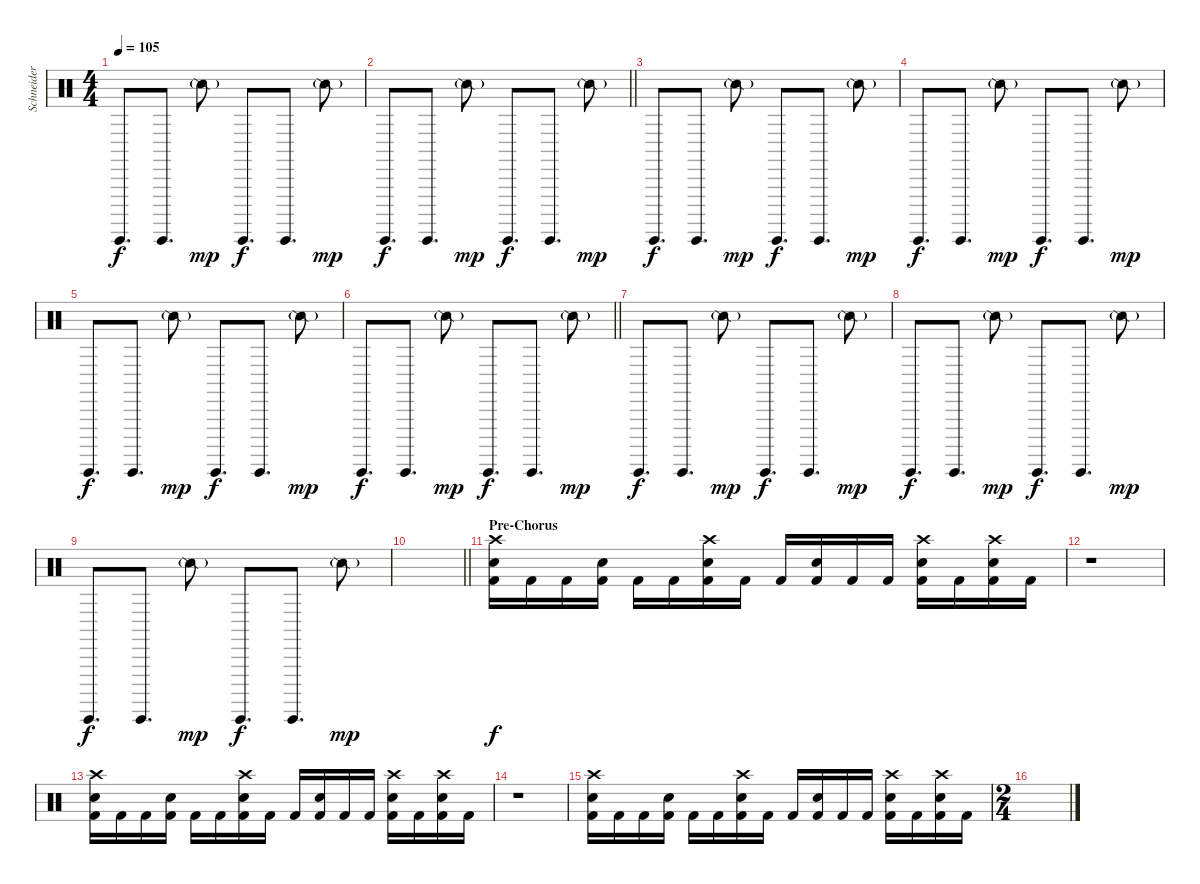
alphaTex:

\track ("Schneider" "Schneider") {instrument percussion}
\staff {score}
\articulation defaults
\ts (4 4)
\tempo 105
\clef neutral
\ks c "Guiro (hit)".8{d dy f} "Guiro (hit)".8{d} "Snare (side stick) 2"{g}.8{dy mp} "Guiro (hit)".8{d dy f} "Guiro (hit)".8{d} "Snare (side stick) 2"{g}.8{dy mp}
|
\barLineRight lightlight "Guiro (hit)".8{d dy f} "Guiro (hit)".8{d} "Snare (side stick) 2"{g}.8{dy mp} "Guiro (hit)".8{d dy f} "Guiro (hit)".8{d} "Snare (side stick) 2"{g}.8{dy mp}
|
"Guiro (hit)".8{d dy f} "Guiro (hit)".8{d} "Snare (side stick) 2"{g}.8{dy mp} "Guiro (hit)".8{d dy f} "Guiro (hit)".8{d} "Snare (side stick) 2"{g}.8{dy mp} |
"Guiro (hit)".8{d dy f} "Guiro (hit)".8{d} "Snare (side stick) 2"{g}.8{dy mp} "Guiro (hit)".8{d dy f} "Guiro (hit)".8{d} "Snare (side stick) 2"{g}.8{dy mp} |
"Guiro (hit)".8{d dy f} "Guiro (hit)".8{d} "Snare (side stick) 2"{g}.8{dy mp} "Guiro (hit)".8{d dy f} "Guiro (hit)".8{d} "Snare (side stick) 2"{g}.8{dy mp} |
\barLineRight lightlight "Guiro (hit)".8{d dy f} "Guiro (hit)".8{d} "Snare (side stick) 2"{g}.8{dy mp} "Guiro (hit)".8{d dy f} "Guiro (hit)".8{d} "Snare (side stick) 2"{g}.8{dy mp}
|
"Guiro (hit)".8{d dy f} "Guiro (hit)".8{d} "Snare (side stick) 2"{g}.8{dy mp} "Guiro (hit)".8{d dy f} "Guiro (hit)".8{d} "Snare (side stick) 2"{g}.8{dy mp} |
"Guiro (hit)".8{d dy f} "Guiro (hit)".8{d} "Snare (side stick) 2"{g}.8{dy mp} "Guiro (hit)".8{d dy f} "Guiro (hit)".8{d} "Snare (side stick) 2"{g}.8{dy mp} |
"Guiro (hit)".8{d dy f} "Guiro (hit)".8{d} "Snare (side stick) 2"{g}.8{dy mp} "Guiro (hit)".8{d dy f} "Guiro (hit)".8{d} "Snare (side stick) 2"{g}.8{dy mp} |
\barLineRight lightlight
|
\section ("" "Pre-Chorus")
("Crash high (hit)" "Kick (hit) 2" "Electric Snare (hit)").16{dy f} "Kick (hit) 2".16 "Kick (hit) 2".16 ("Kick (hit) 2" "Electric Snare (hit)").16 "Kick (hit) 2".16 "Kick (hit) 2".16 ("Crash high (hit)" "Kick (hit) 2" "Electric Snare (hit)").16 "Kick (hit) 2".16 "Kick (hit) 2".16 ("Kick (hit) 2" "Electric Snare (hit)").16 "Kick (hit) 2".16 "Kick (hit) 2".16 ("Crash high (hit)" "Kick (hit) 2" "Electric Snare (hit)").16 "Kick (hit) 2".16 ("Crash high (hit)" "Kick (hit) 2" "Electric Snare (hit)").16 "Kick (hit) 2".16 |
r.1 |
("Crash high (hit)" "Kick (hit) 2" "Electric Snare (hit)").16 "Kick (hit) 2".16 "Kick (hit) 2".16 ("Kick (hit) 2" "Electric Snare (hit)").16 "Kick (hit) 2".16 "Kick (hit) 2".16 ("Crash high (hit)" "Kick (hit) 2" "Electric Snare (hit)").16 "Kick (hit) 2".16 "Kick (hit) 2".16 ("Kick (hit) 2" "Electric Snare (hit)").16 "Kick (hit) 2".16 "Kick (hit) 2".16 ("Crash high (hit)" "Kick (hit) 2" "Electric Snare (hit)").16 "Kick (hit) 2".16 ("Crash high (hit)" "Kick (hit) 2" "Electric Snare (hit)").16 "Kick (hit) 2".16 |
r.1 |
("Crash high (hit)" "Kick (hit) 2" "Electric Snare (hit)").16 "Kick (hit) 2".16 "Kick (hit) 2".16 ("Kick (hit) 2" "Electric Snare (hit)").16 "Kick (hit) 2".16 "Kick (hit) 2".16 ("Crash high (hit)" "Kick (hit) 2" "Electric Snare (hit)").16 "Kick (hit) 2".16 "Kick (hit) 2".16 ("Kick (hit) 2" "Electric Snare (hit)").16 "Kick (hit) 2".16 "Kick (hit) 2".16 ("Crash high (hit)" "Kick (hit) 2" "Electric Snare (hit)").16 "Kick (hit) 2".16 ("Crash high (hit)" "Kick (hit) 2" "Electric Snare (hit)").16 "Kick (hit) 2".16 |
\ts (2 4)
